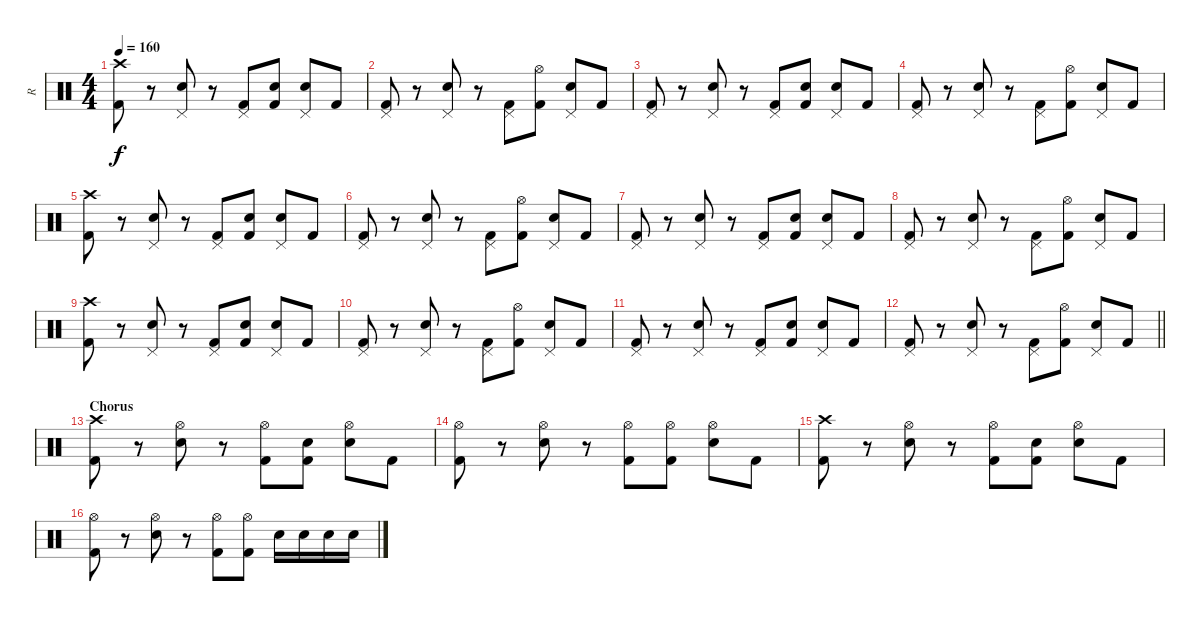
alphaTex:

\track ("R" "R") {instrument percussion}
\staff {score}
\articulation defaults
\ts (4 4)
\tempo 160
\clef neutral
\ks c
("Crash high (hit)" "Kick (hit) 2").8{dy f} r.8 ("Pedal Hi-Hat (hit)" "Electric Snare (hit)").8 r.8 ("Pedal Hi-Hat (hit)" "Kick (hit) 2").8 ("Electric Snare (hit)" "Kick (hit) 2").8 ("Pedal Hi-Hat (hit)" "Electric Snare (hit)").8 "Kick (hit) 2".8 |
("Pedal Hi-Hat (hit)" "Kick (hit) 2").8 r.8 ("Pedal Hi-Hat (hit)" "Electric Snare (hit)").8 r.8 ("Pedal Hi-Hat (hit)" "Kick (hit) 2").8 ("Hi-Hat (open)" "Kick (hit) 2").8 ("Pedal Hi-Hat (hit)" "Electric Snare (hit)").8 "Kick (hit) 2".8 |
("Pedal Hi-Hat (hit)" "Kick (hit) 2").8 r.8 ("Pedal Hi-Hat (hit)" "Electric Snare (hit)").8 r.8 ("Pedal Hi-Hat (hit)" "Kick (hit) 2").8 ("Electric Snare (hit)" "Kick (hit) 2").8 ("Pedal Hi-Hat (hit)" "Electric Snare (hit)").8 "Kick (hit) 2".8 |
("Pedal Hi-Hat (hit)" "Kick (hit) 2").8 r.8 ("Pedal Hi-Hat (hit)" "Electric Snare (hit)").8 r.8 ("Pedal Hi-Hat (hit)" "Kick (hit) 2").8 ("Hi-Hat (open)" "Kick (hit) 2").8 ("Pedal Hi-Hat (hit)" "Electric Snare (hit)").8 "Kick (hit) 2".8 |
("Crash high (hit)" "Kick (hit) 2").8 r.8 ("Pedal Hi-Hat (hit)" "Electric Snare (hit)").8 r.8 ("Pedal Hi-Hat (hit)" "Kick (hit) 2").8 ("Electric Snare (hit)" "Kick (hit) 2").8 ("Pedal Hi-Hat (hit)" "Electric Snare (hit)").8 "Kick (hit) 2".8 |
("Pedal Hi-Hat (hit)" "Kick (hit) 2").8 r.8 ("Pedal Hi-Hat (hit)" "Electric Snare (hit)").8 r.8 ("Pedal Hi-Hat (hit)" "Kick (hit) 2").8 ("Hi-Hat (open)" "Kick (hit) 2").8 ("Pedal Hi-Hat (hit)" "Electric Snare (hit)").8 "Kick (hit) 2".8 |
("Pedal Hi-Hat (hit)" "Kick (hit) 2").8 r.8 ("Pedal Hi-Hat (hit)" "Electric Snare (hit)").8 r.8 ("Pedal Hi-Hat (hit)" "Kick (hit) 2").8 ("Electric Snare (hit)" "Kick (hit) 2").8 ("Pedal Hi-Hat (hit)" "Electric Snare (hit)").8 "Kick (hit) 2".8 |
("Pedal Hi-Hat (hit)" "Kick (hit) 2").8 r.8 ("Pedal Hi-Hat (hit)" "Electric Snare (hit)").8 r.8 ("Pedal Hi-Hat (hit)" "Kick (hit) 2").8 ("Hi-Hat (open)" "Kick (hit) 2").8 ("Pedal Hi-Hat (hit)" "Electric Snare (hit)").8 "Kick (hit) 2".8 |
("Crash high (hit)" "Kick (hit) 2").8 r.8 ("Pedal Hi-Hat (hit)" "Electric Snare (hit)").8 r.8 ("Pedal Hi-Hat (hit)" "Kick (hit) 2").8 ("Electric Snare (hit)" "Kick (hit) 2").8 ("Pedal Hi-Hat (hit)" "Electric Snare (hit)").8 "Kick (hit) 2".8 |
("Pedal Hi-Hat (hit)" "Kick (hit) 2").8 r.8 ("Pedal Hi-Hat (hit)" "Electric Snare (hit)").8 r.8 ("Pedal Hi-Hat (hit)" "Kick (hit) 2").8 ("Hi-Hat (open)" "Kick (hit) 2").8 ("Pedal Hi-Hat (hit)" "Electric Snare (hit)").8 "Kick (hit) 2".8 |
("Pedal Hi-Hat (hit)" "Kick (hit) 2").8 r.8 ("Pedal Hi-Hat (hit)" "Electric Snare (hit)").8 r.8 ("Pedal Hi-Hat (hit)" "Kick (hit) 2").8 ("Electric Snare (hit)" "Kick (hit) 2").8 ("Pedal Hi-Hat (hit)" "Electric Snare (hit)").8 "Kick (hit) 2".8 |
\barLineRight lightlight
("Pedal Hi-Hat (hit)" "Kick (hit) 2").8 r.8 ("Pedal Hi-Hat (hit)" "Electric Snare (hit)").8 r.8 ("Pedal Hi-Hat (hit)" "Kick (hit) 2").8 ("Hi-Hat (open)" "Kick (hit) 2").8 ("Pedal Hi-Hat (hit)" "Electric Snare (hit)").8 "Kick (hit) 2".8 |
\section ("" "Chorus")
("Crash high (hit)" "Kick (hit) 2").8 r.8 ("Hi-Hat (open)" "Electric Snare (hit)").8 r.8 ("Hi-Hat (open)" "Kick (hit) 2").8 ("Electric Snare (hit)" "Kick (hit) 2").8 ("Hi-Hat (open)" "Electric Snare (hit)").8 "Kick (hit) 2".8 |
("Hi-Hat (open)" "Kick (hit) 2").8 r.8 ("Hi-Hat (open)" "Electric Snare (hit)").8 r.8 ("Hi-Hat (open)" "Kick (hit) 2").8 ("Hi-Hat (open)" "Kick (hit) 2").8 ("Hi-Hat (open)" "Electric Snare (hit)").8 "Kick (hit) 2".8 |
("Crash high (hit)" "Kick (hit) 2").8 r.8 ("Hi-Hat (open)" "Electric Snare (hit)").8 r.8 ("Hi-Hat (open)" "Kick (hit) 2").8 ("Electric Snare (hit)" "Kick (hit) 2").8 ("Hi-Hat (open)" "Electric Snare (hit)").8 "Kick (hit) 2".8 |
("Hi-Hat (open)" "Kick (hit) 2").8 r.8 ("Hi-Hat (open)" "Electric Snare (hit)").8 r.8 ("Hi-Hat (open)" "Kick (hit) 2").8 ("Hi-Hat (open)" "Kick (hit) 2").8 "Electric Snare (hit)".16 "Electric Snare (hit)".16 "Electric Snare (hit)".16 "Electric Snare (hit)".16
